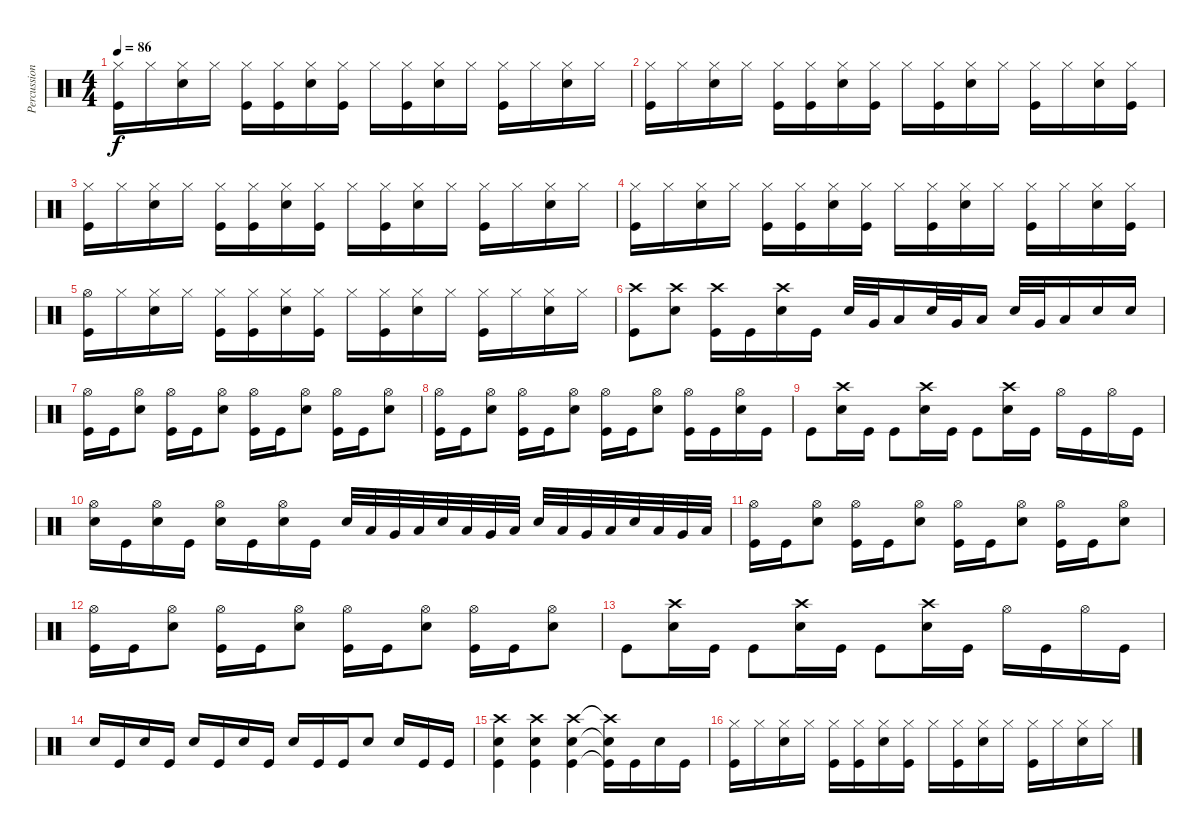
\track ("Percussions" "Percussion") {instrument percussion}
\staff {score}
\articulation defaults
\ts (4 4)
\tempo 86
\clef neutral
\ks c
("Hi-Hat (closed)" "Kick (hit)").16{dy f} "Hi-Hat (closed)".16 ("Hi-Hat (closed)" "Snare (hit) 2").16 "Hi-Hat (closed)".16 ("Hi-Hat (closed)" "Kick (hit)").16 ("Hi-Hat (closed)" "Kick (hit)").16 ("Hi-Hat (closed)" "Snare (hit) 2").16 ("Hi-Hat (closed)" "Kick (hit)").16 "Hi-Hat (closed)".16 ("Hi-Hat (closed)" "Kick (hit)").16 ("Hi-Hat (closed)" "Snare (hit) 2").16 "Hi-Hat (closed)".16 ("Hi-Hat (closed)" "Kick (hit)").16 "Hi-Hat (closed)".16 ("Hi-Hat (closed)" "Snare (hit) 2").16 "Hi-Hat (closed)".16 |
("Hi-Hat (closed)" "Kick (hit)").16 "Hi-Hat (closed)".16 ("Hi-Hat (closed)" "Snare (hit) 2").16 "Hi-Hat (closed)".16 ("Hi-Hat (closed)" "Kick (hit)").16 ("Hi-Hat (closed)" "Kick (hit)").16 ("Hi-Hat (closed)" "Snare (hit) 2").16 ("Hi-Hat (closed)" "Kick (hit)").16 "Hi-Hat (closed)".16 ("Hi-Hat (closed)" "Kick (hit)").16 ("Hi-Hat (closed)" "Snare (hit) 2").16 "Hi-Hat (closed)".16 ("Hi-Hat (closed)" "Kick (hit)").16 "Hi-Hat (closed)".16 ("Hi-Hat (closed)" "Snare (hit) 2").16 ("Hi-Hat (closed)" "Kick (hit)").16 |
("Hi-Hat (closed)" "Kick (hit)").16 "Hi-Hat (closed)".16 ("Hi-Hat (closed)" "Snare (hit) 2").16 "Hi-Hat (closed)".16 ("Hi-Hat (closed)" "Kick (hit)").16 ("Hi-Hat (closed)" "Kick (hit)").16 ("Hi-Hat (closed)" "Snare (hit) 2").16 ("Hi-Hat (closed)" "Kick (hit)").16 "Hi-Hat (closed)".16 ("Hi-Hat (closed)" "Kick (hit)").16 ("Hi-Hat (closed)" "Snare (hit) 2").16 "Hi-Hat (closed)".16 ("Hi-Hat (closed)" "Kick (hit)").16 "Hi-Hat (closed)".16 ("Hi-Hat (closed)" "Snare (hit) 2").16 "Hi-Hat (closed)".16 |
("Hi-Hat (closed)" "Kick (hit)").16 "Hi-Hat (closed)".16 ("Hi-Hat (closed)" "Snare (hit) 2").16 "Hi-Hat (closed)".16 ("Hi-Hat (closed)" "Kick (hit)").16 ("Hi-Hat (closed)" "Kick (hit)").16 ("Hi-Hat (closed)" "Snare (hit) 2").16 ("Hi-Hat (closed)" "Kick (hit)").16 "Hi-Hat (closed)".16 ("Hi-Hat (closed)" "Kick (hit)").16 ("Hi-Hat (closed)" "Snare (hit) 2").16 "Hi-Hat (closed)".16 ("Hi-Hat (closed)" "Kick (hit)").16 "Hi-Hat (closed)".16 ("Hi-Hat (closed)" "Snare (hit) 2").16 ("Hi-Hat (closed)" "Kick (hit)").16 |
("Hi-Hat (open)" "Kick (hit)").16 "Hi-Hat (closed)".16 ("Hi-Hat (closed)" "Snare (hit) 2").16 "Hi-Hat (closed)".16 ("Hi-Hat (closed)" "Kick (hit)").16 ("Hi-Hat (closed)" "Kick (hit)").16 ("Hi-Hat (closed)" "Snare (hit) 2").16 ("Hi-Hat (closed)" "Kick (hit)").16 "Hi-Hat (closed)".16 ("Hi-Hat (closed)" "Kick (hit)").16 ("Hi-Hat (closed)" "Snare (hit) 2").16 "Hi-Hat (closed)".16 ("Hi-Hat (closed)" "Kick (hit)").16 "Hi-Hat (closed)".16 ("Hi-Hat (closed)" "Snare (hit) 2").16 "Hi-Hat (closed)".16 |
("Crash high (hit)" "Kick (hit)").8 ("Crash high (hit)" "Snare (hit) 2").8 ("Crash high (hit)" "Kick (hit)").16 "Kick (hit)".16 ("Crash high (hit)" "Snare (hit) 2").16 "Kick (hit)".16 "Snare (hit) 2".32 "Very Low Tom (hit)".32 "Low Floor Tom (hit)".16 "Snare (hit) 2".32 "Very Low Tom (hit)".32 "Low Floor Tom (hit)".16 "Snare (hit) 2".32 "Very Low Tom (hit)".32 "Low Floor Tom (hit)".16 "Snare (hit) 2".16 "Snare (hit) 2".16 |
("Hi-Hat (open)" "Kick (hit)").16 "Kick (hit)".16 ("Hi-Hat (open)" "Snare (hit) 2").8 ("Hi-Hat (open)" "Kick (hit)").16 "Kick (hit)".16 ("Hi-Hat (open)" "Snare (hit) 2").8 ("Hi-Hat (open)" "Kick (hit)").16 "Kick (hit)".16 ("Hi-Hat (open)" "Snare (hit) 2").8 ("Hi-Hat (open)" "Kick (hit)").16 "Kick (hit)".16 ("Hi-Hat (open)" "Snare (hit) 2").8 |
("Hi-Hat (open)" "Kick (hit)").16 "Kick (hit)".16 ("Hi-Hat (open)" "Snare (hit) 2").8 ("Hi-Hat (open)" "Kick (hit)").16 "Kick (hit)".16 ("Hi-Hat (open)" "Snare (hit) 2").8 ("Hi-Hat (open)" "Kick (hit)").16 "Kick (hit)".16 ("Hi-Hat (open)" "Snare (hit) 2").8 ("Hi-Hat (open)" "Kick (hit)").16 "Kick (hit)".16 ("Hi-Hat (open)" "Snare (hit) 2").16 "Kick (hit)".16 |
"Kick (hit)".8 ("Crash high (hit)" "Snare (hit) 2").16 "Kick (hit)".16 "Kick (hit)".8 ("Crash high (hit)" "Snare (hit) 2").16 "Kick (hit)".16 "Kick (hit)".8 ("Crash high (hit)" "Snare (hit) 2").16 "Kick (hit)".16 "Hi-Hat (open)".16 "Kick (hit)".16 "Hi-Hat (open)".16 "Kick (hit)".16 |
("Hi-Hat (open)" "Snare (hit) 2").16 "Kick (hit)".16 ("Hi-Hat (open)" "Snare (hit) 2").16 "Kick (hit)".16 ("Hi-Hat (open)" "Snare (hit) 2").16 "Kick (hit)".16 ("Hi-Hat (open)" "Snare (hit) 2").16 "Kick (hit)".16 "Snare (hit) 2".32 "Low Tom (hit)".32 "Very Low Tom (hit)".32 "Low Floor Tom (hit)".32 "Snare (hit) 2".32 "Low Tom (hit)".32 "Very Low Tom (hit)".32 "Low Floor Tom (hit)".32 "Snare (hit) 2".32 "Low Tom (hit)".32 "Very Low Tom (hit)".32 "Low Floor Tom (hit)".32 "Snare (hit) 2".32 "Low Tom (hit)".32 "Very Low Tom (hit)".32 "Low Floor Tom (hit)".32 |
("Hi-Hat (open)" "Kick (hit)").16 "Kick (hit)".16 ("Hi-Hat (open)" "Snare (hit) 2").8 ("Hi-Hat (open)" "Kick (hit)").16 "Kick (hit)".16 ("Hi-Hat (open)" "Snare (hit) 2").8 ("Hi-Hat (open)" "Kick (hit)").16 "Kick (hit)".16 ("Hi-Hat (open)" "Snare (hit) 2").8 ("Hi-Hat (open)" "Kick (hit)").16 "Kick (hit)".16 ("Hi-Hat (open)" "Snare (hit) 2").8 |
("Hi-Hat (open)" "Kick (hit)").16 "Kick (hit)".16 ("Hi-Hat (open)" "Snare (hit) 2").8 ("Hi-Hat (open)" "Kick (hit)").16 "Kick (hit)".16 ("Hi-Hat (open)" "Snare (hit) 2").8 ("Hi-Hat (open)" "Kick (hit)").16 "Kick (hit)".16 ("Hi-Hat (open)" "Snare (hit) 2").8 ("Hi-Hat (open)" "Kick (hit)").16 "Kick (hit)".16 ("Hi-Hat (open)" "Snare (hit) 2").8 |
"Kick (hit)".8 ("Crash high (hit)" "Snare (hit) 2").16 "Kick (hit)".16 "Kick (hit)".8 ("Crash high (hit)" "Snare (hit) 2").16 "Kick (hit)".16 "Kick (hit)".8 ("Crash high (hit)" "Snare (hit) 2").16 "Kick (hit)".16 "Hi-Hat (open)".16 "Kick (hit)".16 "Hi-Hat (open)".16 "Kick (hit)".16 |
"Snare (hit) 2".16 "Kick (hit)".16 "Snare (hit) 2".16 "Kick (hit)".16 "Snare (hit) 2".16 "Kick (hit)".16 "Snare (hit) 2".16 "Kick (hit)".16 "Snare (hit) 2".16 "Kick (hit)".16 "Kick (hit)".16 "Snare (hit) 2".8 "Snare (hit) 2".16 "Kick (hit)".16 "Kick (hit)".16 |
("Crash high (hit)" "Snare (hit) 2" "Kick (hit)").4 ("Crash high (hit)" "Snare (hit) 2" "Kick (hit)").4 ("Crash high (hit)" "Snare (hit) 2" "Kick (hit)").4 ("Crash high (hit)"{t} "Snare (hit) 2"{t} "Kick (hit)"{t}).16 "Kick (hit)".16 "Snare (hit) 2".16 "Kick (hit)".16 |
("Hi-Hat (closed)" "Kick (hit)").16 "Hi-Hat (closed)".16 ("Hi-Hat (closed)" "Snare (hit) 2").16 "Hi-Hat (closed)".16 ("Hi-Hat (closed)" "Kick (hit)").16 ("Hi-Hat (closed)" "Kick (hit)").16 ("Hi-Hat (closed)" "Snare (hit) 2").16 ("Hi-Hat (closed)" "Kick (hit)").16 "Hi-Hat (closed)".16 ("Hi-Hat (closed)" "Kick (hit)").16 ("Hi-Hat (closed)" "Snare (hit) 2").16 "Hi-Hat (closed)".16 ("Hi-Hat (closed)" "Kick (hit)").16 "Hi-Hat (closed)".16 ("Hi-Hat (closed)" "Snare (hit) 2").16 "Hi-Hat (closed)".16
